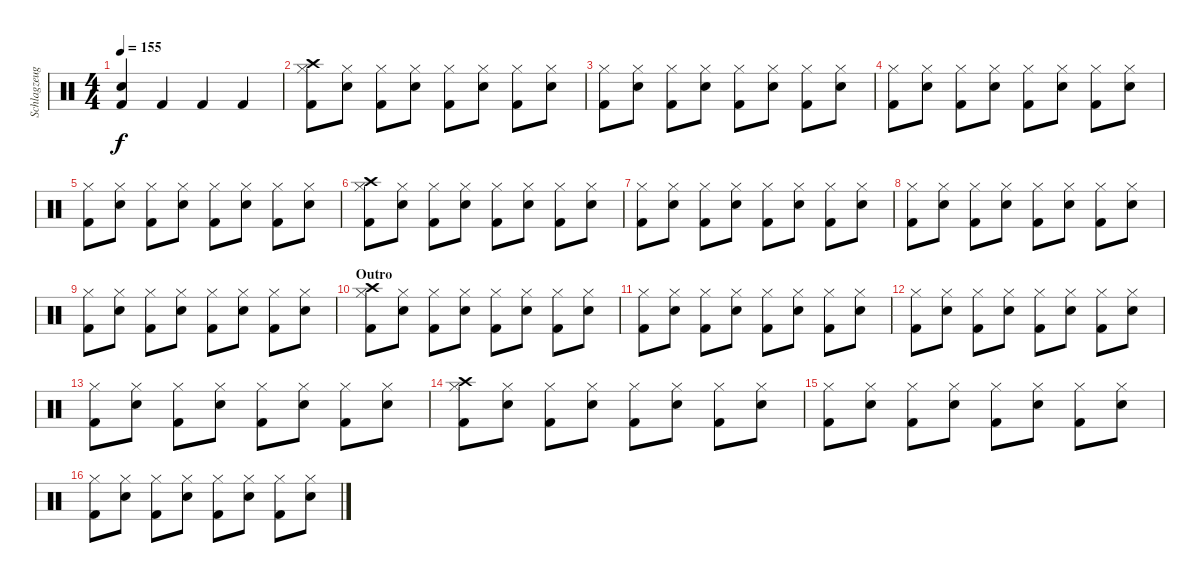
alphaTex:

\track ("Schlagzeug" "Schlagzeug") {instrument percussion}
\staff {score}
\articulation defaults
\ts (4 4)
\tempo 155
\clef neutral
\ks c
("Snare (hit) 2" "Kick (hit) 2").4{dy f} "Kick (hit) 2".4 "Kick (hit) 2".4 "Kick (hit) 2".4 |
("Hi-Hat (closed)" "Kick (hit) 2" "Crash high (hit)").8 ("Hi-Hat (closed)" "Snare (hit) 2").8 ("Hi-Hat (closed)" "Kick (hit) 2").8 ("Hi-Hat (closed)" "Snare (hit) 2").8 ("Hi-Hat (closed)" "Kick (hit) 2").8 ("Hi-Hat (closed)" "Snare (hit) 2").8 ("Hi-Hat (closed)" "Kick (hit) 2").8 ("Hi-Hat (closed)" "Snare (hit) 2").8 |
("Hi-Hat (closed)" "Kick (hit) 2").8 ("Hi-Hat (closed)" "Snare (hit) 2").8 ("Hi-Hat (closed)" "Kick (hit) 2").8 ("Hi-Hat (closed)" "Snare (hit) 2").8 ("Hi-Hat (closed)" "Kick (hit) 2").8 ("Hi-Hat (closed)" "Snare (hit) 2").8 ("Hi-Hat (closed)" "Kick (hit) 2").8 ("Hi-Hat (closed)" "Snare (hit) 2").8 |
("Hi-Hat (closed)" "Kick (hit) 2").8 ("Hi-Hat (closed)" "Snare (hit) 2").8 ("Hi-Hat (closed)" "Kick (hit) 2").8 ("Hi-Hat (closed)" "Snare (hit) 2").8 ("Hi-Hat (closed)" "Kick (hit) 2").8 ("Hi-Hat (closed)" "Snare (hit) 2").8 ("Hi-Hat (closed)" "Kick (hit) 2").8 ("Hi-Hat (closed)" "Snare (hit) 2").8 |
("Hi-Hat (closed)" "Kick (hit) 2").8 ("Hi-Hat (closed)" "Snare (hit) 2").8 ("Hi-Hat (closed)" "Kick (hit) 2").8 ("Hi-Hat (closed)" "Snare (hit) 2").8 ("Hi-Hat (closed)" "Kick (hit) 2").8 ("Hi-Hat (closed)" "Snare (hit) 2").8 ("Hi-Hat (closed)" "Kick (hit) 2").8 ("Hi-Hat (closed)" "Snare (hit) 2").8 |
("Hi-Hat (closed)" "Kick (hit) 2" "Crash high (hit)").8 ("Hi-Hat (closed)" "Snare (hit) 2").8 ("Hi-Hat (closed)" "Kick (hit) 2").8 ("Hi-Hat (closed)" "Snare (hit) 2").8 ("Hi-Hat (closed)" "Kick (hit) 2").8 ("Hi-Hat (closed)" "Snare (hit) 2").8 ("Hi-Hat (closed)" "Kick (hit) 2").8 ("Hi-Hat (closed)" "Snare (hit) 2").8 |
("Hi-Hat (closed)" "Kick (hit) 2").8 ("Hi-Hat (closed)" "Snare (hit) 2").8 ("Hi-Hat (closed)" "Kick (hit) 2").8 ("Hi-Hat (closed)" "Snare (hit) 2").8 ("Hi-Hat (closed)" "Kick (hit) 2").8 ("Hi-Hat (closed)" "Snare (hit) 2").8 ("Hi-Hat (closed)" "Kick (hit) 2").8 ("Hi-Hat (closed)" "Snare (hit) 2").8 |
("Hi-Hat (closed)" "Kick (hit) 2").8 ("Hi-Hat (closed)" "Snare (hit) 2").8 ("Hi-Hat (closed)" "Kick (hit) 2").8 ("Hi-Hat (closed)" "Snare (hit) 2").8 ("Hi-Hat (closed)" "Kick (hit) 2").8 ("Hi-Hat (closed)" "Snare (hit) 2").8 ("Hi-Hat (closed)" "Kick (hit) 2").8 ("Hi-Hat (closed)" "Snare (hit) 2").8 |
("Hi-Hat (closed)" "Kick (hit) 2").8 ("Hi-Hat (closed)" "Snare (hit) 2").8 ("Hi-Hat (closed)" "Kick (hit) 2").8 ("Hi-Hat (closed)" "Snare (hit) 2").8 ("Hi-Hat (closed)" "Kick (hit) 2").8 ("Hi-Hat (closed)" "Snare (hit) 2").8 ("Hi-Hat (closed)" "Kick (hit) 2").8 ("Hi-Hat (closed)" "Snare (hit) 2").8 |
\section ("" "Outro")
("Hi-Hat (closed)" "Kick (hit) 2" "Crash high (hit)").8 ("Hi-Hat (closed)" "Snare (hit) 2").8 ("Hi-Hat (closed)" "Kick (hit) 2").8 ("Hi-Hat (closed)" "Snare (hit) 2").8 ("Hi-Hat (closed)" "Kick (hit) 2").8 ("Hi-Hat (closed)" "Snare (hit) 2").8 ("Hi-Hat (closed)" "Kick (hit) 2").8 ("Hi-Hat (closed)" "Snare (hit) 2").8 |
("Hi-Hat (closed)" "Kick (hit) 2").8 ("Hi-Hat (closed)" "Snare (hit) 2").8 ("Hi-Hat (closed)" "Kick (hit) 2").8 ("Hi-Hat (closed)" "Snare (hit) 2").8 ("Hi-Hat (closed)" "Kick (hit) 2").8 ("Hi-Hat (closed)" "Snare (hit) 2").8 ("Hi-Hat (closed)" "Kick (hit) 2").8 ("Hi-Hat (closed)" "Snare (hit) 2").8 |
("Hi-Hat (closed)" "Kick (hit) 2").8 ("Hi-Hat (closed)" "Snare (hit) 2").8 ("Hi-Hat (closed)" "Kick (hit) 2").8 ("Hi-Hat (closed)" "Snare (hit) 2").8 ("Hi-Hat (closed)" "Kick (hit) 2").8 ("Hi-Hat (closed)" "Snare (hit) 2").8 ("Hi-Hat (closed)" "Kick (hit) 2").8 ("Hi-Hat (closed)" "Snare (hit) 2").8 |
("Hi-Hat (closed)" "Kick (hit) 2").8 ("Hi-Hat (closed)" "Snare (hit) 2").8 ("Hi-Hat (closed)" "Kick (hit) 2").8 ("Hi-Hat (closed)" "Snare (hit) 2").8 ("Hi-Hat (closed)" "Kick (hit) 2").8 ("Hi-Hat (closed)" "Snare (hit) 2").8 ("Hi-Hat (closed)" "Kick (hit) 2").8 ("Hi-Hat (closed)" "Snare (hit) 2").8 |
("Hi-Hat (closed)" "Kick (hit) 2" "Crash high (hit)").8 ("Hi-Hat (closed)" "Snare (hit) 2").8 ("Hi-Hat (closed)" "Kick (hit) 2").8 ("Hi-Hat (closed)" "Snare (hit) 2").8 ("Hi-Hat (closed)" "Kick (hit) 2").8 ("Hi-Hat (closed)" "Snare (hit) 2").8 ("Hi-Hat (closed)" "Kick (hit) 2").8 ("Hi-Hat (closed)" "Snare (hit) 2").8 |
("Hi-Hat (closed)" "Kick (hit) 2").8 ("Hi-Hat (closed)" "Snare (hit) 2").8 ("Hi-Hat (closed)" "Kick (hit) 2").8 ("Hi-Hat (closed)" "Snare (hit) 2").8 ("Hi-Hat (closed)" "Kick (hit) 2").8 ("Hi-Hat (closed)" "Snare (hit) 2").8 ("Hi-Hat (closed)" "Kick (hit) 2").8 ("Hi-Hat (closed)" "Snare (hit) 2").8 |
("Hi-Hat (closed)" "Kick (hit) 2").8 ("Hi-Hat (closed)" "Snare (hit) 2").8 ("Hi-Hat (closed)" "Kick (hit) 2").8 ("Hi-Hat (closed)" "Snare (hit) 2").8 ("Hi-Hat (closed)" "Kick (hit) 2").8 ("Hi-Hat (closed)" "Snare (hit) 2").8 ("Hi-Hat (closed)" "Kick (hit) 2").8 ("Hi-Hat (closed)" "Snare (hit) 2").8
